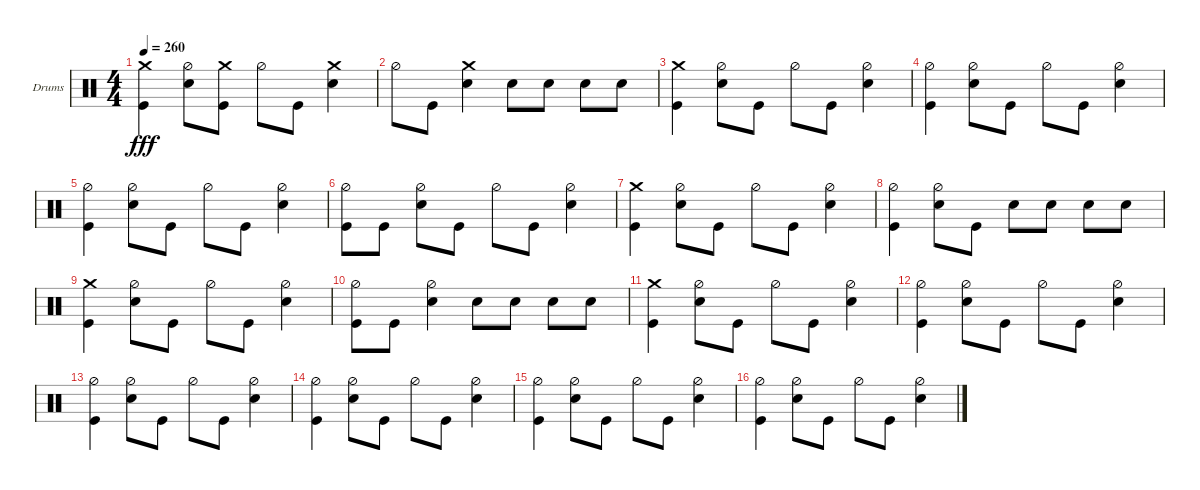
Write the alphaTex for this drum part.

\defaultSystemsLayout 4
\bracketExtendMode groupsimilarinstruments
\firstSystemTrackNameOrientation horizontal
\otherSystemsTrackNameOrientation horizontal
\track ("Stefan Schwarzmann" "Drums") {instrument percussion}
\staff {score}
\articulation defaults
\ts (4 4)
\tempo 260
\clef neutral
\ks c
("Kick (hit)" "Crash medium (hit)").4{dy fff} ("Snare (hit) 2" "Hi-Hat (half)").8 ("Kick (hit)" "Crash medium (hit)").8 "Hi-Hat (half)".8 "Kick (hit)".8 ("Snare (hit) 2" "Crash medium (hit)").4 |
"Hi-Hat (half)".8 "Kick (hit)".8 ("Snare (hit) 2" "Crash medium (hit)").4 "Snare (hit) 2".8 "Snare (hit) 2".8 "Snare (hit) 2".8 "Snare (hit) 2".8 |
("Kick (hit)" "Crash medium (hit)").4 ("Snare (hit) 2" "Hi-Hat (half)").8 "Kick (hit)".8 "Hi-Hat (half)".8 "Kick (hit)".8 ("Snare (hit) 2" "Hi-Hat (half)").4 |
("Kick (hit)" "Hi-Hat (half)").4 ("Snare (hit) 2" "Hi-Hat (half)").8 "Kick (hit)".8 "Hi-Hat (half)".8 "Kick (hit)".8 ("Snare (hit) 2" "Hi-Hat (half)").4 |
("Kick (hit)" "Hi-Hat (half)").4 ("Snare (hit) 2" "Hi-Hat (half)").8 "Kick (hit)".8 "Hi-Hat (half)".8 "Kick (hit)".8 ("Snare (hit) 2" "Hi-Hat (half)").4 |
("Kick (hit)" "Hi-Hat (half)").8 "Kick (hit)".8 ("Snare (hit) 2" "Hi-Hat (half)").8 "Kick (hit)".8 "Hi-Hat (half)".8 "Kick (hit)".8 ("Snare (hit) 2" "Hi-Hat (half)").4 |
("Kick (hit)" "Crash medium (hit)").4 ("Snare (hit) 2" "Hi-Hat (half)").8 "Kick (hit)".8 "Hi-Hat (half)".8 "Kick (hit)".8 ("Snare (hit) 2" "Hi-Hat (half)").4 |
("Kick (hit)" "Hi-Hat (half)").4 ("Snare (hit) 2" "Hi-Hat (half)").8 "Kick (hit)".8 "Snare (hit) 2".8 "Snare (hit) 2".8 "Snare (hit) 2".8 "Snare (hit) 2".8 |
("Kick (hit)" "Crash medium (hit)").4 ("Snare (hit) 2" "Hi-Hat (half)").8 "Kick (hit)".8 "Hi-Hat (half)".8 "Kick (hit)".8 ("Snare (hit) 2" "Hi-Hat (half)").4 |
("Kick (hit)" "Hi-Hat (half)").8 "Kick (hit)".8 ("Snare (hit) 2" "Hi-Hat (half)").4 "Snare (hit) 2".8 "Snare (hit) 2".8 "Snare (hit) 2".8 "Snare (hit) 2".8 |
("Kick (hit)" "Crash medium (hit)").4 ("Snare (hit) 2" "Hi-Hat (half)").8 "Kick (hit)".8 "Hi-Hat (half)".8 "Kick (hit)".8 ("Snare (hit) 2" "Hi-Hat (half)").4 |
("Kick (hit)" "Hi-Hat (half)").4 ("Snare (hit) 2" "Hi-Hat (half)").8 "Kick (hit)".8 "Hi-Hat (half)".8 "Kick (hit)".8 ("Snare (hit) 2" "Hi-Hat (half)").4 |
("Kick (hit)" "Hi-Hat (half)").4 ("Snare (hit) 2" "Hi-Hat (half)").8 "Kick (hit)".8 "Hi-Hat (half)".8 "Kick (hit)".8 ("Snare (hit) 2" "Hi-Hat (half)").4 |
("Kick (hit)" "Hi-Hat (half)").4 ("Snare (hit) 2" "Hi-Hat (half)").8 "Kick (hit)".8 "Hi-Hat (half)".8 "Kick (hit)".8 ("Snare (hit) 2" "Hi-Hat (half)").4 |
("Kick (hit)" "Hi-Hat (half)").4 ("Snare (hit) 2" "Hi-Hat (half)").8 "Kick (hit)".8 "Hi-Hat (half)".8 "Kick (hit)".8 ("Snare (hit) 2" "Hi-Hat (half)").4 |
("Kick (hit)" "Hi-Hat (half)").4 ("Snare (hit) 2" "Hi-Hat (half)").8 "Kick (hit)".8 "Hi-Hat (half)".8 "Kick (hit)".8 ("Snare (hit) 2" "Hi-Hat (half)").4
